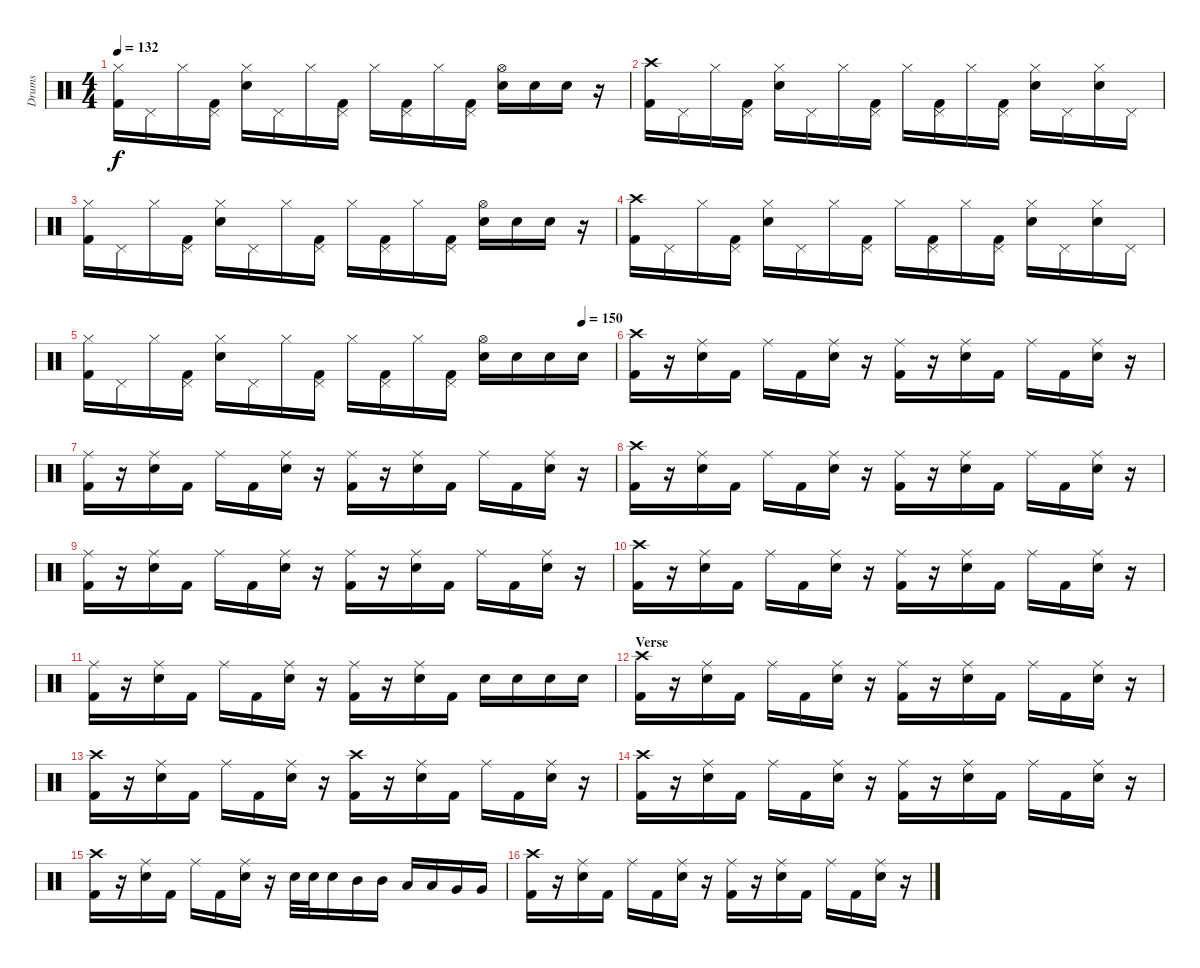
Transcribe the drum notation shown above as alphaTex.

\track ("Drums" "Drums") {instrument percussion}
\staff {score}
\articulation defaults
\ts (4 4)
\tempo 132
\clef neutral
\ks c
("Hi-Hat (closed)" "Kick (hit) 2").16{dy f} "Pedal Hi-Hat (hit)".16 "Hi-Hat (closed)".16 ("Pedal Hi-Hat (hit)" "Kick (hit) 2").16 ("Hi-Hat (closed)" "Electric Snare (hit)").16 "Pedal Hi-Hat (hit)".16 "Hi-Hat (closed)".16 ("Pedal Hi-Hat (hit)" "Kick (hit) 2").16 "Hi-Hat (closed)".16 ("Pedal Hi-Hat (hit)" "Kick (hit) 2").16 "Hi-Hat (closed)".16 ("Pedal Hi-Hat (hit)" "Kick (hit) 2").16 ("Hi-Hat (open)" "Electric Snare (hit)").16 "Electric Snare (hit)".16 "Electric Snare (hit)".16 r.16 |
("Crash high (hit)" "Kick (hit) 2").16 "Pedal Hi-Hat (hit)".16 "Hi-Hat (closed)".16 ("Pedal Hi-Hat (hit)" "Kick (hit) 2").16 ("Hi-Hat (closed)" "Electric Snare (hit)").16 "Pedal Hi-Hat (hit)".16 "Hi-Hat (closed)".16 ("Pedal Hi-Hat (hit)" "Kick (hit) 2").16 "Hi-Hat (closed)".16 ("Pedal Hi-Hat (hit)" "Kick (hit) 2").16 "Hi-Hat (closed)".16 ("Pedal Hi-Hat (hit)" "Kick (hit) 2").16 ("Hi-Hat (closed)" "Electric Snare (hit)").16 "Pedal Hi-Hat (hit)".16 ("Hi-Hat (closed)" "Electric Snare (hit)").16 "Pedal Hi-Hat (hit)".16 |
("Hi-Hat (closed)" "Kick (hit) 2").16 "Pedal Hi-Hat (hit)".16 "Hi-Hat (closed)".16 ("Pedal Hi-Hat (hit)" "Kick (hit) 2").16 ("Hi-Hat (closed)" "Electric Snare (hit)").16 "Pedal Hi-Hat (hit)".16 "Hi-Hat (closed)".16 ("Pedal Hi-Hat (hit)" "Kick (hit) 2").16 "Hi-Hat (closed)".16 ("Pedal Hi-Hat (hit)" "Kick (hit) 2").16 "Hi-Hat (closed)".16 ("Pedal Hi-Hat (hit)" "Kick (hit) 2").16 ("Hi-Hat (open)" "Electric Snare (hit)").16 "Electric Snare (hit)".16 "Electric Snare (hit)".16 r.16 |
("Crash high (hit)" "Kick (hit) 2").16 "Pedal Hi-Hat (hit)".16 "Hi-Hat (closed)".16 ("Pedal Hi-Hat (hit)" "Kick (hit) 2").16 ("Hi-Hat (closed)" "Electric Snare (hit)").16 "Pedal Hi-Hat (hit)".16 "Hi-Hat (closed)".16 ("Pedal Hi-Hat (hit)" "Kick (hit) 2").16 "Hi-Hat (closed)".16 ("Pedal Hi-Hat (hit)" "Kick (hit) 2").16 "Hi-Hat (closed)".16 ("Pedal Hi-Hat (hit)" "Kick (hit) 2").16 ("Hi-Hat (closed)" "Electric Snare (hit)").16 "Pedal Hi-Hat (hit)".16 ("Hi-Hat (closed)" "Electric Snare (hit)").16 "Pedal Hi-Hat (hit)".16 |
\tempo (150 0.9375)
("Hi-Hat (closed)" "Kick (hit) 2").16 "Pedal Hi-Hat (hit)".16 "Hi-Hat (closed)".16 ("Pedal Hi-Hat (hit)" "Kick (hit) 2").16 ("Hi-Hat (closed)" "Electric Snare (hit)").16 "Pedal Hi-Hat (hit)".16 "Hi-Hat (closed)".16 ("Pedal Hi-Hat (hit)" "Kick (hit) 2").16 "Hi-Hat (closed)".16 ("Pedal Hi-Hat (hit)" "Kick (hit) 2").16 "Hi-Hat (closed)".16 ("Pedal Hi-Hat (hit)" "Kick (hit) 2").16 ("Hi-Hat (open)" "Electric Snare (hit)").16 "Electric Snare (hit)".16 "Electric Snare (hit)".16 "Electric Snare (hit)".16 |
("Crash high (hit)" "Kick (hit) 2").16 r.16 ("Ride (middle)" "Electric Snare (hit)").16 "Kick (hit) 2".16 "Ride (middle)".16 "Kick (hit) 2".16 ("Ride (middle)" "Electric Snare (hit)").16 r.16 ("Ride (middle)" "Kick (hit) 2").16 r.16 ("Ride (middle)" "Electric Snare (hit)").16 "Kick (hit) 2".16 "Ride (middle)".16 "Kick (hit) 2".16 ("Ride (middle)" "Electric Snare (hit)").16 r.16 |
("Ride (middle)" "Kick (hit) 2").16 r.16 ("Ride (middle)" "Electric Snare (hit)").16 "Kick (hit) 2".16 "Ride (middle)".16 "Kick (hit) 2".16 ("Ride (middle)" "Electric Snare (hit)").16 r.16 ("Ride (middle)" "Kick (hit) 2").16 r.16 ("Ride (middle)" "Electric Snare (hit)").16 "Kick (hit) 2".16 "Ride (middle)".16 "Kick (hit) 2".16 ("Ride (middle)" "Electric Snare (hit)").16 r.16 |
("Crash high (hit)" "Kick (hit) 2").16 r.16 ("Ride (middle)" "Electric Snare (hit)").16 "Kick (hit) 2".16 "Ride (middle)".16 "Kick (hit) 2".16 ("Ride (middle)" "Electric Snare (hit)").16 r.16 ("Ride (middle)" "Kick (hit) 2").16 r.16 ("Ride (middle)" "Electric Snare (hit)").16 "Kick (hit) 2".16 "Ride (middle)".16 "Kick (hit) 2".16 ("Ride (middle)" "Electric Snare (hit)").16 r.16 |
("Ride (middle)" "Kick (hit) 2").16 r.16 ("Ride (middle)" "Electric Snare (hit)").16 "Kick (hit) 2".16 "Ride (middle)".16 "Kick (hit) 2".16 ("Ride (middle)" "Electric Snare (hit)").16 r.16 ("Ride (middle)" "Kick (hit) 2").16 r.16 ("Ride (middle)" "Electric Snare (hit)").16 "Kick (hit) 2".16 "Ride (middle)".16 "Kick (hit) 2".16 ("Ride (middle)" "Electric Snare (hit)").16 r.16 |
("Crash high (hit)" "Kick (hit) 2").16 r.16 ("Ride (middle)" "Electric Snare (hit)").16 "Kick (hit) 2".16 "Ride (middle)".16 "Kick (hit) 2".16 ("Ride (middle)" "Electric Snare (hit)").16 r.16 ("Ride (middle)" "Kick (hit) 2").16 r.16 ("Ride (middle)" "Electric Snare (hit)").16 "Kick (hit) 2".16 "Ride (middle)".16 "Kick (hit) 2".16 ("Ride (middle)" "Electric Snare (hit)").16 r.16 |
("Ride (middle)" "Kick (hit) 2").16 r.16 ("Ride (middle)" "Electric Snare (hit)").16 "Kick (hit) 2".16 "Ride (middle)".16 "Kick (hit) 2".16 ("Ride (middle)" "Electric Snare (hit)").16 r.16 ("Ride (middle)" "Kick (hit) 2").16 r.16 ("Ride (middle)" "Electric Snare (hit)").16 "Kick (hit) 2".16 "Electric Snare (hit)".16 "Electric Snare (hit)".16 "Electric Snare (hit)".16 "Electric Snare (hit)".16 |
\section ("" "Verse")
("Crash high (hit)" "Kick (hit) 2").16 r.16 ("Ride (middle)" "Electric Snare (hit)").16 "Kick (hit) 2".16 "Ride (middle)".16 "Kick (hit) 2".16 ("Ride (middle)" "Electric Snare (hit)").16 r.16 ("Ride (middle)" "Kick (hit) 2").16 r.16 ("Ride (middle)" "Electric Snare (hit)").16 "Kick (hit) 2".16 "Ride (middle)".16 "Kick (hit) 2".16 ("Ride (middle)" "Electric Snare (hit)").16 r.16 |
("Crash high (hit)" "Kick (hit) 2").16 r.16 ("Ride (middle)" "Electric Snare (hit)").16 "Kick (hit) 2".16 "Ride (middle)".16 "Kick (hit) 2".16 ("Ride (middle)" "Electric Snare (hit)").16 r.16 ("Crash high (hit)" "Kick (hit) 2").16 r.16 ("Ride (middle)" "Electric Snare (hit)").16 "Kick (hit) 2".16 "Ride (middle)".16 "Kick (hit) 2".16 ("Ride (middle)" "Electric Snare (hit)").16 r.16 |
("Crash high (hit)" "Kick (hit) 2").16 r.16 ("Ride (middle)" "Electric Snare (hit)").16 "Kick (hit) 2".16 "Ride (middle)".16 "Kick (hit) 2".16 ("Ride (middle)" "Electric Snare (hit)").16 r.16 ("Ride (middle)" "Kick (hit) 2").16 r.16 ("Ride (middle)" "Electric Snare (hit)").16 "Kick (hit) 2".16 "Ride (middle)".16 "Kick (hit) 2".16 ("Ride (middle)" "Electric Snare (hit)").16 r.16 |
("Crash high (hit)" "Kick (hit) 2").16 r.16 ("Ride (middle)" "Electric Snare (hit)").16 "Kick (hit) 2".16 "Ride (middle)".16 "Kick (hit) 2".16 ("Ride (middle)" "Electric Snare (hit)").16 r.16 "Electric Snare (hit)".32 "Electric Snare (hit)".32 "Electric Snare (hit)".16 "Mid Tom (hit)".16 "Mid Tom (hit)".16 "Low Tom (hit)".16 "Low Tom (hit)".16 "Very Low Tom (hit)".16 "Very Low Tom (hit)".16 |
("Crash high (hit)" "Kick (hit) 2").16 r.16 ("Ride (middle)" "Electric Snare (hit)").16 "Kick (hit) 2".16 "Ride (middle)".16 "Kick (hit) 2".16 ("Ride (middle)" "Electric Snare (hit)").16 r.16 ("Ride (middle)" "Kick (hit) 2").16 r.16 ("Ride (middle)" "Electric Snare (hit)").16 "Kick (hit) 2".16 "Ride (middle)".16 "Kick (hit) 2".16 ("Ride (middle)" "Electric Snare (hit)").16 r.16
